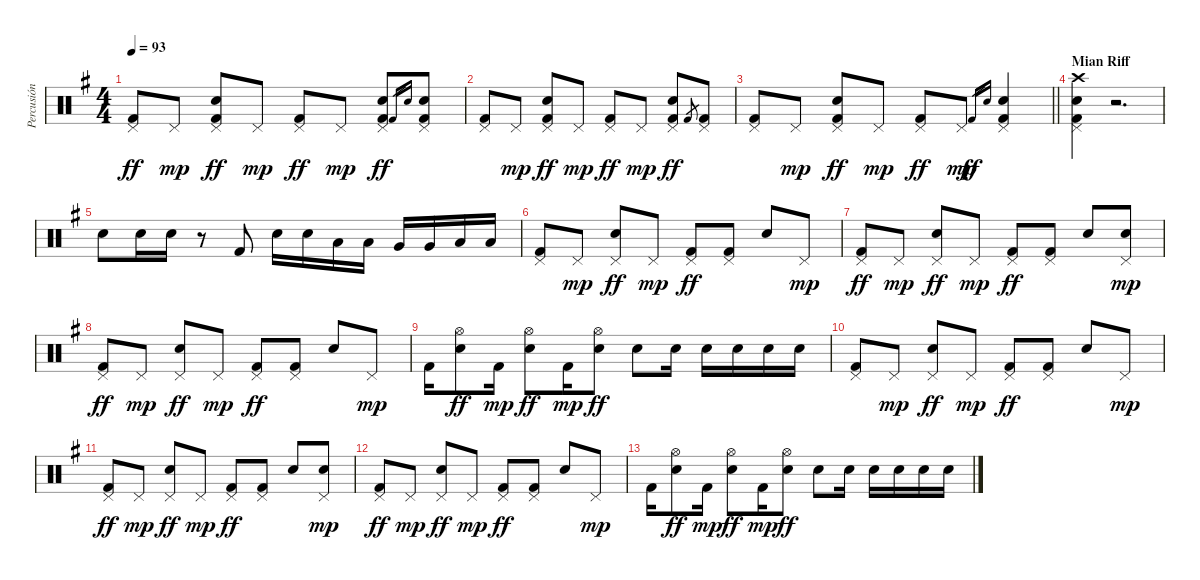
\track ("Percusión" "Percusión") {instrument percussion}
\staff {score}
\articulation defaults
\ts (4 4)
\tempo 93
\clef neutral
\ks eminor
("Pedal Hi-Hat (hit)" "Kick (hit) 2").8{dy ff} "Pedal Hi-Hat (hit)".8{dy mp} ("Pedal Hi-Hat (hit)" "Snare (hit) 2" "Kick (hit) 2").8{dy ff} "Pedal Hi-Hat (hit)".8{dy mp} ("Pedal Hi-Hat (hit)" "Kick (hit) 2").8{dy ff} "Pedal Hi-Hat (hit)".8{dy mp} ("Pedal Hi-Hat (hit)" "Snare (hit) 2" "Kick (hit) 2").8{dy ff} "Kick (hit) 2".16{gr} "Snare (hit) 2".16{gr} ("Pedal Hi-Hat (hit)" "Kick (hit) 2" "Snare (hit) 2").8 |
("Pedal Hi-Hat (hit)" "Kick (hit) 2").8 "Pedal Hi-Hat (hit)".8{dy mp} ("Pedal Hi-Hat (hit)" "Snare (hit) 2" "Kick (hit) 2").8{dy ff} "Pedal Hi-Hat (hit)".8{dy mp} ("Pedal Hi-Hat (hit)" "Kick (hit) 2").8{dy ff} "Pedal Hi-Hat (hit)".8{dy mp} ("Pedal Hi-Hat (hit)" "Snare (hit) 2" "Kick (hit) 2").8{dy ff} "Kick (hit) 2".8{gr} ("Pedal Hi-Hat (hit)" "Kick (hit) 2").8 |
\barLineRight lightlight
("Pedal Hi-Hat (hit)" "Kick (hit) 2").8 "Pedal Hi-Hat (hit)".8{dy mp} ("Pedal Hi-Hat (hit)" "Snare (hit) 2" "Kick (hit) 2").8{dy ff} "Pedal Hi-Hat (hit)".8{dy mp} ("Pedal Hi-Hat (hit)" "Kick (hit) 2").8{dy ff} "Pedal Hi-Hat (hit)".8{dy mp} "Kick (hit) 2".16{gr dy ff} "Snare (hit) 2".16{gr} ("Pedal Hi-Hat (hit)" "Kick (hit) 2" "Snare (hit) 2").4 |
\section ("" "Mian Riff")
("Pedal Hi-Hat (hit)" "Snare (hit) 2" "Kick (hit) 2" "Crash high (hit)").4 r.2{d} |
"Snare (hit) 2".8 "Snare (hit) 2".16 "Snare (hit) 2".16 r.8 "Kick (hit) 2".8 "Snare (hit) 2".16 "Snare (hit) 2".16 "Low Floor Tom (hit)".16 "Low Floor Tom (hit)".16 "Very Low Tom (hit)".16 "Very Low Tom (hit)".16 "Low Floor Tom (hit)".16 "Low Floor Tom (hit)".16 |
("Pedal Hi-Hat (hit)" "Kick (hit) 2").8 "Pedal Hi-Hat (hit)".8{dy mp} ("Pedal Hi-Hat (hit)" "Snare (hit) 2").8{dy ff} "Pedal Hi-Hat (hit)".8{dy mp} ("Pedal Hi-Hat (hit)" "Kick (hit) 2").8{dy ff} ("Pedal Hi-Hat (hit)" "Kick (hit) 2").8 "Snare (hit) 2".8 "Pedal Hi-Hat (hit)".8{dy mp} |
("Pedal Hi-Hat (hit)" "Kick (hit) 2").8{dy ff} "Pedal Hi-Hat (hit)".8{dy mp} ("Pedal Hi-Hat (hit)" "Snare (hit) 2").8{dy ff} "Pedal Hi-Hat (hit)".8{dy mp} ("Pedal Hi-Hat (hit)" "Kick (hit) 2").8{dy ff} ("Pedal Hi-Hat (hit)" "Kick (hit) 2").8 "Snare (hit) 2".8 ("Pedal Hi-Hat (hit)" "Snare (hit) 2").8{dy mp} |
("Pedal Hi-Hat (hit)" "Kick (hit) 2").8{dy ff} "Pedal Hi-Hat (hit)".8{dy mp} ("Pedal Hi-Hat (hit)" "Snare (hit) 2").8{dy ff} "Pedal Hi-Hat (hit)".8{dy mp} ("Pedal Hi-Hat (hit)" "Kick (hit) 2").8{dy ff} ("Pedal Hi-Hat (hit)" "Kick (hit) 2").8 "Snare (hit) 2".8 "Pedal Hi-Hat (hit)".8{dy mp} |
"Kick (hit) 2".16 ("Hi-Hat (open)" "Snare (hit) 2").8{dy ff} "Kick (hit) 2".16{dy mp} ("Hi-Hat (open)" "Snare (hit) 2").8{dy ff} "Kick (hit) 2".16{dy mp} ("Hi-Hat (open)" "Snare (hit) 2").8{dy ff} "Snare (hit) 2".8 "Snare (hit) 2".16 "Snare (hit) 2".16 "Snare (hit) 2".16 "Snare (hit) 2".16 "Snare (hit) 2".16 |
("Pedal Hi-Hat (hit)" "Kick (hit) 2").8 "Pedal Hi-Hat (hit)".8{dy mp} ("Pedal Hi-Hat (hit)" "Snare (hit) 2").8{dy ff} "Pedal Hi-Hat (hit)".8{dy mp} ("Pedal Hi-Hat (hit)" "Kick (hit) 2").8{dy ff} ("Pedal Hi-Hat (hit)" "Kick (hit) 2").8 "Snare (hit) 2".8 "Pedal Hi-Hat (hit)".8{dy mp} |
("Pedal Hi-Hat (hit)" "Kick (hit) 2").8{dy ff} "Pedal Hi-Hat (hit)".8{dy mp} ("Pedal Hi-Hat (hit)" "Snare (hit) 2").8{dy ff} "Pedal Hi-Hat (hit)".8{dy mp} ("Pedal Hi-Hat (hit)" "Kick (hit) 2").8{dy ff} ("Pedal Hi-Hat (hit)" "Kick (hit) 2").8 "Snare (hit) 2".8 ("Pedal Hi-Hat (hit)" "Snare (hit) 2").8{dy mp} |
("Pedal Hi-Hat (hit)" "Kick (hit) 2").8{dy ff} "Pedal Hi-Hat (hit)".8{dy mp} ("Pedal Hi-Hat (hit)" "Snare (hit) 2").8{dy ff} "Pedal Hi-Hat (hit)".8{dy mp} ("Pedal Hi-Hat (hit)" "Kick (hit) 2").8{dy ff} ("Pedal Hi-Hat (hit)" "Kick (hit) 2").8 "Snare (hit) 2".8 "Pedal Hi-Hat (hit)".8{dy mp} |
"Kick (hit) 2".16 ("Hi-Hat (open)" "Snare (hit) 2").8{dy ff} "Kick (hit) 2".16{dy mp} ("Hi-Hat (open)" "Snare (hit) 2").8{dy ff} "Kick (hit) 2".16{dy mp} ("Hi-Hat (open)" "Snare (hit) 2").8{dy ff} "Snare (hit) 2".8 "Snare (hit) 2".16 "Snare (hit) 2".16 "Snare (hit) 2".16 "Snare (hit) 2".16 "Snare (hit) 2".16
